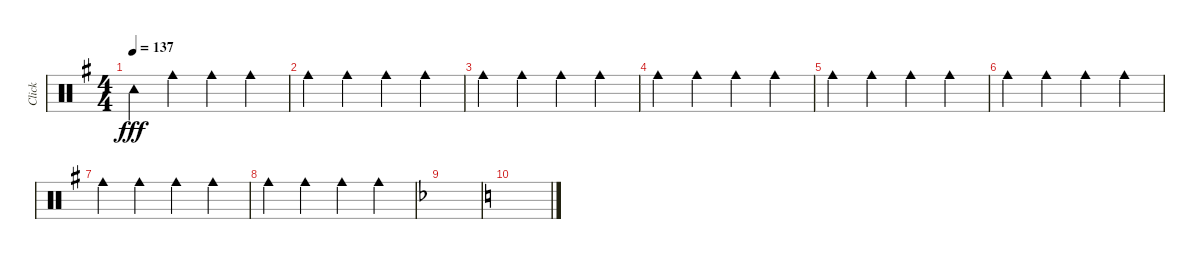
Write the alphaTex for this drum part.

\track ("Click" "Click") {mute instrument percussion}
\staff {score}
\articulation defaults
\ts (4 4)
\tempo 137
\clef neutral
\ks g "Tambourine (hit)".4{dy fff} "Cowbell medium (hit)".4 "Cowbell medium (hit)".4 "Cowbell medium (hit)".4
|
"Cowbell medium (hit)".4 "Cowbell medium (hit)".4 "Cowbell medium (hit)".4 "Cowbell medium (hit)".4 |
"Cowbell medium (hit)".4 "Cowbell medium (hit)".4 "Cowbell medium (hit)".4 "Cowbell medium (hit)".4 |
"Cowbell medium (hit)".4 "Cowbell medium (hit)".4 "Cowbell medium (hit)".4 "Cowbell medium (hit)".4 |
"Cowbell medium (hit)".4 "Cowbell medium (hit)".4 "Cowbell medium (hit)".4 "Cowbell medium (hit)".4 |
"Cowbell medium (hit)".4 "Cowbell medium (hit)".4 "Cowbell medium (hit)".4 "Cowbell medium (hit)".4 |
"Cowbell medium (hit)".4 "Cowbell medium (hit)".4 "Cowbell medium (hit)".4 "Cowbell medium (hit)".4 |
"Cowbell medium (hit)".4 "Cowbell medium (hit)".4 "Cowbell medium (hit)".4 "Cowbell medium (hit)".4 |
\ks f
|
\ks c
